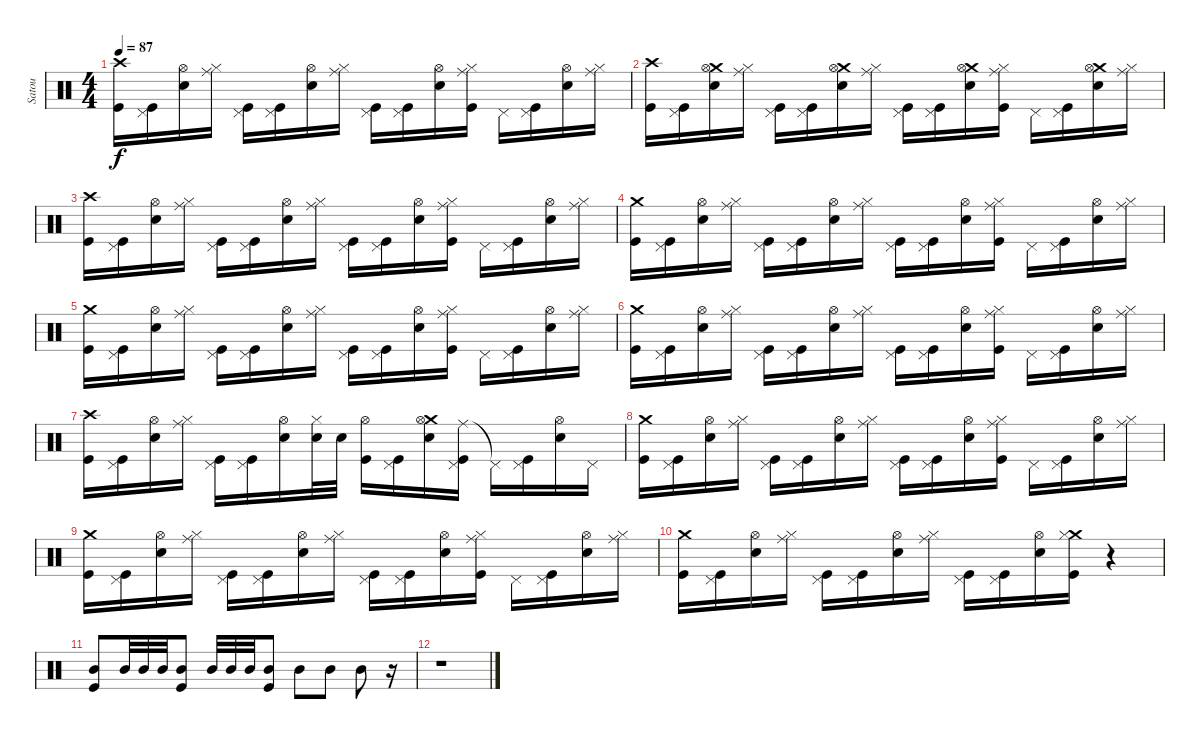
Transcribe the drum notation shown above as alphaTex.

\track ("Satou" "Satou") {instrument percussion}
\staff {score}
\articulation defaults
\ts (4 4)
\tempo 87
\clef neutral
\ks c
("Crash high (hit)" "Kick (hit)").16{dy f} ("Pedal Hi-Hat (hit)" "Kick (hit)").16 ("Hi-Hat (open)" "Snare (hit) 2").16 ("Ride (middle)" "Hi-Hat (closed)").16 ("Pedal Hi-Hat (hit)" "Kick (hit)").16 ("Pedal Hi-Hat (hit)" "Kick (hit)").16 ("Hi-Hat (open)" "Snare (hit) 2").16 ("Ride (middle)" "Hi-Hat (closed)").16 ("Pedal Hi-Hat (hit)" "Kick (hit)").16 ("Pedal Hi-Hat (hit)" "Kick (hit)").16 ("Hi-Hat (open)" "Snare (hit) 2").16 ("Ride (middle)" "Hi-Hat (closed)" "Kick (hit)").16 "Pedal Hi-Hat (hit)".16 ("Pedal Hi-Hat (hit)" "Kick (hit)").16 ("Hi-Hat (open)" "Snare (hit) 2").16 ("Ride (middle)" "Hi-Hat (closed)").16 |
("Crash high (hit)" "Kick (hit)").16 ("Pedal Hi-Hat (hit)" "Kick (hit)").16 ("Crash medium (hit)" "Hi-Hat (open)" "Snare (hit) 2").16 ("Ride (middle)" "Hi-Hat (closed)").16 ("Pedal Hi-Hat (hit)" "Kick (hit)").16 ("Pedal Hi-Hat (hit)" "Kick (hit)").16 ("Crash medium (hit)" "Hi-Hat (open)" "Snare (hit) 2").16 ("Ride (middle)" "Hi-Hat (closed)").16 ("Pedal Hi-Hat (hit)" "Kick (hit)").16 ("Pedal Hi-Hat (hit)" "Kick (hit)").16 ("Crash medium (hit)" "Hi-Hat (open)" "Snare (hit) 2").16 ("Ride (middle)" "Hi-Hat (closed)" "Kick (hit)").16 "Pedal Hi-Hat (hit)".16 ("Pedal Hi-Hat (hit)" "Kick (hit)").16 ("Crash medium (hit)" "Hi-Hat (open)" "Snare (hit) 2").16 ("Ride (middle)" "Hi-Hat (closed)").16 |
("Crash high (hit)" "Kick (hit)").16 ("Pedal Hi-Hat (hit)" "Kick (hit)").16 ("Hi-Hat (open)" "Snare (hit) 2").16 ("Ride (middle)" "Hi-Hat (closed)").16 ("Pedal Hi-Hat (hit)" "Kick (hit)").16 ("Pedal Hi-Hat (hit)" "Kick (hit)").16 ("Hi-Hat (open)" "Snare (hit) 2").16 ("Ride (middle)" "Hi-Hat (closed)").16 ("Pedal Hi-Hat (hit)" "Kick (hit)").16 ("Pedal Hi-Hat (hit)" "Kick (hit)").16 ("Hi-Hat (open)" "Snare (hit) 2").16 ("Ride (middle)" "Hi-Hat (closed)" "Kick (hit)").16 "Pedal Hi-Hat (hit)".16 ("Pedal Hi-Hat (hit)" "Kick (hit)").16 ("Hi-Hat (open)" "Snare (hit) 2").16 ("Ride (middle)" "Hi-Hat (closed)").16 |
("Crash medium (hit)" "Kick (hit)").16 ("Pedal Hi-Hat (hit)" "Kick (hit)").16 ("Hi-Hat (open)" "Snare (hit) 2").16 ("Ride (middle)" "Hi-Hat (closed)").16 ("Pedal Hi-Hat (hit)" "Kick (hit)").16 ("Pedal Hi-Hat (hit)" "Kick (hit)").16 ("Hi-Hat (open)" "Snare (hit) 2").16 ("Ride (middle)" "Hi-Hat (closed)").16 ("Pedal Hi-Hat (hit)" "Kick (hit)").16 ("Pedal Hi-Hat (hit)" "Kick (hit)").16 ("Hi-Hat (open)" "Snare (hit) 2").16 ("Ride (middle)" "Hi-Hat (closed)" "Kick (hit)").16 "Pedal Hi-Hat (hit)".16 ("Pedal Hi-Hat (hit)" "Kick (hit)").16 ("Hi-Hat (open)" "Snare (hit) 2").16 ("Ride (middle)" "Hi-Hat (closed)").16 |
("Crash medium (hit)" "Kick (hit)").16 ("Pedal Hi-Hat (hit)" "Kick (hit)").16 ("Hi-Hat (open)" "Snare (hit) 2").16 ("Ride (middle)" "Hi-Hat (closed)").16 ("Pedal Hi-Hat (hit)" "Kick (hit)").16 ("Pedal Hi-Hat (hit)" "Kick (hit)").16 ("Hi-Hat (open)" "Snare (hit) 2").16 ("Ride (middle)" "Hi-Hat (closed)").16 ("Pedal Hi-Hat (hit)" "Kick (hit)").16 ("Pedal Hi-Hat (hit)" "Kick (hit)").16 ("Hi-Hat (open)" "Snare (hit) 2").16 ("Ride (middle)" "Hi-Hat (closed)" "Kick (hit)").16 "Pedal Hi-Hat (hit)".16 ("Pedal Hi-Hat (hit)" "Kick (hit)").16 ("Hi-Hat (open)" "Snare (hit) 2").16 ("Ride (middle)" "Hi-Hat (closed)").16 |
("Crash medium (hit)" "Kick (hit)").16 ("Pedal Hi-Hat (hit)" "Kick (hit)").16 ("Hi-Hat (open)" "Snare (hit) 2").16 ("Ride (middle)" "Hi-Hat (closed)").16 ("Pedal Hi-Hat (hit)" "Kick (hit)").16 ("Pedal Hi-Hat (hit)" "Kick (hit)").16 ("Hi-Hat (open)" "Snare (hit) 2").16 ("Ride (middle)" "Hi-Hat (closed)").16 ("Pedal Hi-Hat (hit)" "Kick (hit)").16 ("Pedal Hi-Hat (hit)" "Kick (hit)").16 ("Hi-Hat (open)" "Snare (hit) 2").16 ("Ride (middle)" "Hi-Hat (closed)" "Kick (hit)").16 "Pedal Hi-Hat (hit)".16 ("Pedal Hi-Hat (hit)" "Kick (hit)").16 ("Hi-Hat (open)" "Snare (hit) 2").16 ("Ride (middle)" "Hi-Hat (closed)").16 |
("Crash high (hit)" "Kick (hit)").16 ("Pedal Hi-Hat (hit)" "Kick (hit)").16 ("Hi-Hat (open)" "Snare (hit) 2").16 ("Ride (middle)" "Hi-Hat (closed)").16 ("Pedal Hi-Hat (hit)" "Kick (hit)").16 ("Pedal Hi-Hat (hit)" "Kick (hit)").16 ("Hi-Hat (open)" "Snare (hit) 2").16 ("Hi-Hat (closed)" "Snare (hit) 2").32 "Snare (hit) 2".32 ("Hi-Hat (open)" "Kick (hit)").16 ("Pedal Hi-Hat (hit)" "Kick (hit)").16 ("Crash medium (hit)" "Hi-Hat (open)" "Snare (hit) 2").16 ("Ride (middle)" "Pedal Hi-Hat (hit)" "Kick (hit)").16 "Pedal Hi-Hat (hit)"{t}.16 ("Pedal Hi-Hat (hit)" "Kick (hit)").16 ("Hi-Hat (open)" "Snare (hit) 2").16 "Pedal Hi-Hat (hit)".16 |
("Crash medium (hit)" "Kick (hit)").16 ("Pedal Hi-Hat (hit)" "Kick (hit)").16 ("Hi-Hat (open)" "Snare (hit) 2").16 ("Ride (middle)" "Hi-Hat (closed)").16 ("Pedal Hi-Hat (hit)" "Kick (hit)").16 ("Pedal Hi-Hat (hit)" "Kick (hit)").16 ("Hi-Hat (open)" "Snare (hit) 2").16 ("Ride (middle)" "Hi-Hat (closed)").16 ("Pedal Hi-Hat (hit)" "Kick (hit)").16 ("Pedal Hi-Hat (hit)" "Kick (hit)").16 ("Hi-Hat (open)" "Snare (hit) 2").16 ("Ride (middle)" "Hi-Hat (closed)" "Kick (hit)").16 "Pedal Hi-Hat (hit)".16 ("Pedal Hi-Hat (hit)" "Kick (hit)").16 ("Hi-Hat (open)" "Snare (hit) 2").16 ("Ride (middle)" "Hi-Hat (closed)").16 |
("Crash medium (hit)" "Kick (hit)").16 ("Pedal Hi-Hat (hit)" "Kick (hit)").16 ("Hi-Hat (open)" "Snare (hit) 2").16 ("Ride (middle)" "Hi-Hat (closed)").16 ("Pedal Hi-Hat (hit)" "Kick (hit)").16 ("Pedal Hi-Hat (hit)" "Kick (hit)").16 ("Hi-Hat (open)" "Snare (hit) 2").16 ("Ride (middle)" "Hi-Hat (closed)").16 ("Pedal Hi-Hat (hit)" "Kick (hit)").16 ("Pedal Hi-Hat (hit)" "Kick (hit)").16 ("Hi-Hat (open)" "Snare (hit) 2").16 ("Ride (middle)" "Hi-Hat (closed)" "Kick (hit)").16 "Pedal Hi-Hat (hit)".16 ("Pedal Hi-Hat (hit)" "Kick (hit)").16 ("Hi-Hat (open)" "Snare (hit) 2").16 ("Ride (middle)" "Hi-Hat (closed)").16 |
("Crash medium (hit)" "Kick (hit)").16 ("Pedal Hi-Hat (hit)" "Kick (hit)").16 ("Hi-Hat (open)" "Snare (hit) 2").16 ("Ride (middle)" "Hi-Hat (closed)").16 ("Pedal Hi-Hat (hit)" "Kick (hit)").16 ("Pedal Hi-Hat (hit)" "Kick (hit)").16 ("Hi-Hat (open)" "Snare (hit) 2").16 ("Ride (middle)" "Hi-Hat (closed)").16 ("Pedal Hi-Hat (hit)" "Kick (hit)").16 ("Pedal Hi-Hat (hit)" "Kick (hit)").16 ("Hi-Hat (open)" "Snare (hit) 2").16 ("Crash medium (hit)" "Hi-Hat (closed)" "Kick (hit)").16 r.4 |
("Mid Tom (hit)" "Kick (hit)").8 "Mid Tom (hit)".32 "Mid Tom (hit)".32 "Mid Tom (hit)".32 ("Mid Tom (hit)" "Kick (hit)").8 "Mid Tom (hit)".32 "Mid Tom (hit)".32 "Mid Tom (hit)".32 ("Mid Tom (hit)" "Kick (hit)").8 "Mid Tom (hit)".8 "Mid Tom (hit)".8 "Mid Tom (hit)".8 r.16 |
r.1
